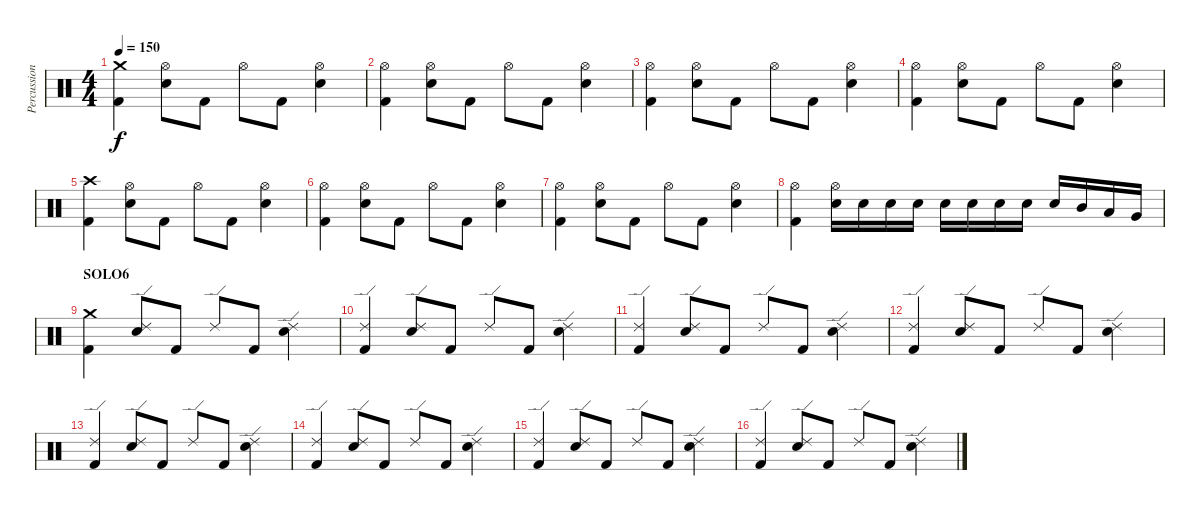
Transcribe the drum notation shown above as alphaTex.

\track ("Percussions" "Percussion") {instrument percussion}
\staff {score}
\articulation defaults
\ts (4 4)
\tempo 150
\clef neutral
\ks c
("Crash medium (hit)" "Kick (hit) 2").4{dy f} ("Hi-Hat (open)" "Electric Snare (hit)").8 "Kick (hit) 2".8 "Hi-Hat (open)".8 "Kick (hit) 2".8 ("Hi-Hat (open)" "Electric Snare (hit)").4 |
("Hi-Hat (open)" "Kick (hit) 2").4 ("Hi-Hat (open)" "Electric Snare (hit)").8 "Kick (hit) 2".8 "Hi-Hat (open)".8 "Kick (hit) 2".8 ("Hi-Hat (open)" "Electric Snare (hit)").4 |
("Hi-Hat (open)" "Kick (hit) 2").4 ("Hi-Hat (open)" "Electric Snare (hit)").8 "Kick (hit) 2".8 "Hi-Hat (open)".8 "Kick (hit) 2".8 ("Hi-Hat (open)" "Electric Snare (hit)").4 |
("Hi-Hat (open)" "Kick (hit) 2").4 ("Hi-Hat (open)" "Electric Snare (hit)").8 "Kick (hit) 2".8 "Hi-Hat (open)".8 "Kick (hit) 2".8 ("Hi-Hat (open)" "Electric Snare (hit)").4 |
("Crash high (hit)" "Kick (hit) 2").4 ("Hi-Hat (open)" "Electric Snare (hit)").8 "Kick (hit) 2".8 "Hi-Hat (open)".8 "Kick (hit) 2".8 ("Hi-Hat (open)" "Electric Snare (hit)").4 |
("Hi-Hat (open)" "Kick (hit) 2").4 ("Hi-Hat (open)" "Electric Snare (hit)").8 "Kick (hit) 2".8 "Hi-Hat (open)".8 "Kick (hit) 2".8 ("Hi-Hat (open)" "Electric Snare (hit)").4 |
("Hi-Hat (open)" "Kick (hit) 2").4 ("Hi-Hat (open)" "Electric Snare (hit)").8 "Kick (hit) 2".8 "Hi-Hat (open)".8 "Kick (hit) 2".8 ("Hi-Hat (open)" "Electric Snare (hit)").4 |
("Hi-Hat (open)" "Kick (hit) 2").4 ("Hi-Hat (open)" "Electric Snare (hit)").16 "Electric Snare (hit)".16 "Electric Snare (hit)".16 "Electric Snare (hit)".16 "Electric Snare (hit)".16 "Electric Snare (hit)".16 "Electric Snare (hit)".16 "Electric Snare (hit)".16 "Electric Snare (hit)".16 "Mid Tom (hit)".16 "Low Tom (hit)".16 "Very Low Tom (hit)".16 |
\section ("" "SOLO6")
("Crash medium (hit)" "Kick (hit) 2").4 ("Ride (edge) 2" "Electric Snare (hit)").8 "Kick (hit) 2".8 "Ride (edge) 2".8 "Kick (hit) 2".8 ("Ride (edge) 2" "Electric Snare (hit)").4 |
("Ride (edge) 2" "Kick (hit) 2").4 ("Ride (edge) 2" "Electric Snare (hit)").8 "Kick (hit) 2".8 "Ride (edge) 2".8 "Kick (hit) 2".8 ("Ride (edge) 2" "Electric Snare (hit)").4 |
("Ride (edge) 2" "Kick (hit) 2").4 ("Ride (edge) 2" "Electric Snare (hit)").8 "Kick (hit) 2".8 "Ride (edge) 2".8 "Kick (hit) 2".8 ("Ride (edge) 2" "Electric Snare (hit)").4 |
("Ride (edge) 2" "Kick (hit) 2").4 ("Ride (edge) 2" "Electric Snare (hit)").8 "Kick (hit) 2".8 "Ride (edge) 2".8 "Kick (hit) 2".8 ("Ride (edge) 2" "Electric Snare (hit)").4 |
("Ride (edge) 2" "Kick (hit) 2").4 ("Ride (edge) 2" "Electric Snare (hit)").8 "Kick (hit) 2".8 "Ride (edge) 2".8 "Kick (hit) 2".8 ("Ride (edge) 2" "Electric Snare (hit)").4 |
("Ride (edge) 2" "Kick (hit) 2").4 ("Ride (edge) 2" "Electric Snare (hit)").8 "Kick (hit) 2".8 "Ride (edge) 2".8 "Kick (hit) 2".8 ("Ride (edge) 2" "Electric Snare (hit)").4 |
("Ride (edge) 2" "Kick (hit) 2").4 ("Ride (edge) 2" "Electric Snare (hit)").8 "Kick (hit) 2".8 "Ride (edge) 2".8 "Kick (hit) 2".8 ("Ride (edge) 2" "Electric Snare (hit)").4 |
("Ride (edge) 2" "Kick (hit) 2").4 ("Ride (edge) 2" "Electric Snare (hit)").8 "Kick (hit) 2".8 "Ride (edge) 2".8 "Kick (hit) 2".8 ("Ride (edge) 2" "Electric Snare (hit)").4
